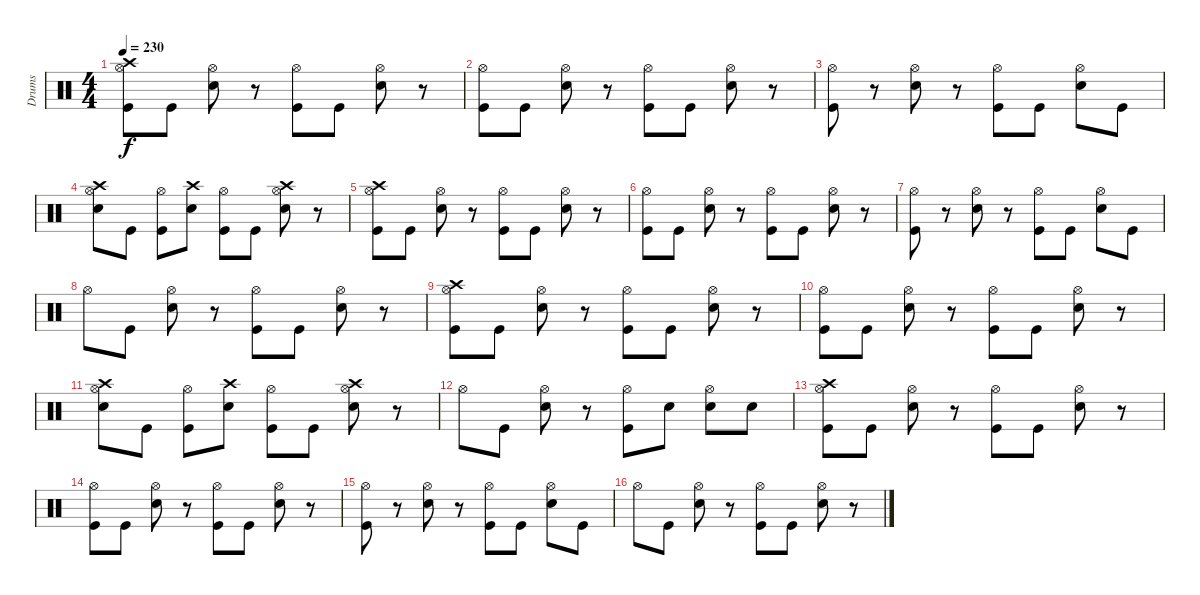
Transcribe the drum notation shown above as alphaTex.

\track ("Drums" "Drums") {instrument percussion}
\staff {score}
\articulation defaults
\ts (4 4)
\tempo 230
\clef neutral
\ks c
("Crash high (hit)" "Kick (hit)" "Hi-Hat (open)").8{dy f} "Kick (hit)".8 ("Electric Snare (hit)" "Hi-Hat (open)").8 r.8 ("Kick (hit)" "Hi-Hat (open)").8 "Kick (hit)".8 ("Electric Snare (hit)" "Hi-Hat (open)").8 r.8 |
("Kick (hit)" "Hi-Hat (open)").8 "Kick (hit)".8 ("Electric Snare (hit)" "Hi-Hat (open)").8 r.8 ("Kick (hit)" "Hi-Hat (open)").8 "Kick (hit)".8 ("Electric Snare (hit)" "Hi-Hat (open)").8 r.8 |
("Kick (hit)" "Hi-Hat (open)").8 r.8 ("Electric Snare (hit)" "Hi-Hat (open)").8 r.8 ("Kick (hit)" "Hi-Hat (open)").8 "Kick (hit)".8 ("Electric Snare (hit)" "Hi-Hat (open)").8 "Kick (hit)".8 |
("Crash high (hit)" "Electric Snare (hit)" "Hi-Hat (open)").8 "Kick (hit)".8 ("Kick (hit)" "Hi-Hat (open)").8 ("Crash high (hit)" "Electric Snare (hit)").8 ("Kick (hit)" "Hi-Hat (open)").8 "Kick (hit)".8 ("Crash high (hit)" "Electric Snare (hit)" "Hi-Hat (open)").8 r.8 |
("Crash high (hit)" "Kick (hit)" "Hi-Hat (open)").8 "Kick (hit)".8 ("Electric Snare (hit)" "Hi-Hat (open)").8 r.8 ("Kick (hit)" "Hi-Hat (open)").8 "Kick (hit)".8 ("Electric Snare (hit)" "Hi-Hat (open)").8 r.8 |
("Kick (hit)" "Hi-Hat (open)").8 "Kick (hit)".8 ("Electric Snare (hit)" "Hi-Hat (open)").8 r.8 ("Kick (hit)" "Hi-Hat (open)").8 "Kick (hit)".8 ("Electric Snare (hit)" "Hi-Hat (open)").8 r.8 |
("Kick (hit)" "Hi-Hat (open)").8 r.8 ("Electric Snare (hit)" "Hi-Hat (open)").8 r.8 ("Kick (hit)" "Hi-Hat (open)").8 "Kick (hit)".8 ("Electric Snare (hit)" "Hi-Hat (open)").8 "Kick (hit)".8 |
"Hi-Hat (open)".8 "Kick (hit)".8 ("Electric Snare (hit)" "Hi-Hat (open)").8 r.8 ("Kick (hit)" "Hi-Hat (open)").8 "Kick (hit)".8 ("Electric Snare (hit)" "Hi-Hat (open)").8 r.8 |
("Crash high (hit)" "Kick (hit)" "Hi-Hat (open)").8 "Kick (hit)".8 ("Electric Snare (hit)" "Hi-Hat (open)").8 r.8 ("Kick (hit)" "Hi-Hat (open)").8 "Kick (hit)".8 ("Electric Snare (hit)" "Hi-Hat (open)").8 r.8 |
("Kick (hit)" "Hi-Hat (open)").8 "Kick (hit)".8 ("Electric Snare (hit)" "Hi-Hat (open)").8 r.8 ("Kick (hit)" "Hi-Hat (open)").8 "Kick (hit)".8 ("Electric Snare (hit)" "Hi-Hat (open)").8 r.8 |
("Crash high (hit)" "Electric Snare (hit)" "Hi-Hat (open)").8 "Kick (hit)".8 ("Kick (hit)" "Hi-Hat (open)").8 ("Crash high (hit)" "Electric Snare (hit)").8 ("Kick (hit)" "Hi-Hat (open)").8 "Kick (hit)".8 ("Crash high (hit)" "Electric Snare (hit)" "Hi-Hat (open)").8 r.8 |
"Hi-Hat (open)".8 "Kick (hit)".8 ("Electric Snare (hit)" "Hi-Hat (open)").8 r.8 ("Kick (hit)" "Hi-Hat (open)").8 "Electric Snare (hit)".8 ("Electric Snare (hit)" "Hi-Hat (open)").8 "Electric Snare (hit)".8 |
("Crash high (hit)" "Kick (hit)" "Hi-Hat (open)").8 "Kick (hit)".8 ("Electric Snare (hit)" "Hi-Hat (open)").8 r.8 ("Kick (hit)" "Hi-Hat (open)").8 "Kick (hit)".8 ("Electric Snare (hit)" "Hi-Hat (open)").8 r.8 |
("Kick (hit)" "Hi-Hat (open)").8 "Kick (hit)".8 ("Electric Snare (hit)" "Hi-Hat (open)").8 r.8 ("Kick (hit)" "Hi-Hat (open)").8 "Kick (hit)".8 ("Electric Snare (hit)" "Hi-Hat (open)").8 r.8 |
("Kick (hit)" "Hi-Hat (open)").8 r.8 ("Electric Snare (hit)" "Hi-Hat (open)").8 r.8 ("Kick (hit)" "Hi-Hat (open)").8 "Kick (hit)".8 ("Electric Snare (hit)" "Hi-Hat (open)").8 "Kick (hit)".8 |
"Hi-Hat (open)".8 "Kick (hit)".8 ("Electric Snare (hit)" "Hi-Hat (open)").8 r.8 ("Kick (hit)" "Hi-Hat (open)").8 "Kick (hit)".8 ("Electric Snare (hit)" "Hi-Hat (open)").8 r.8
